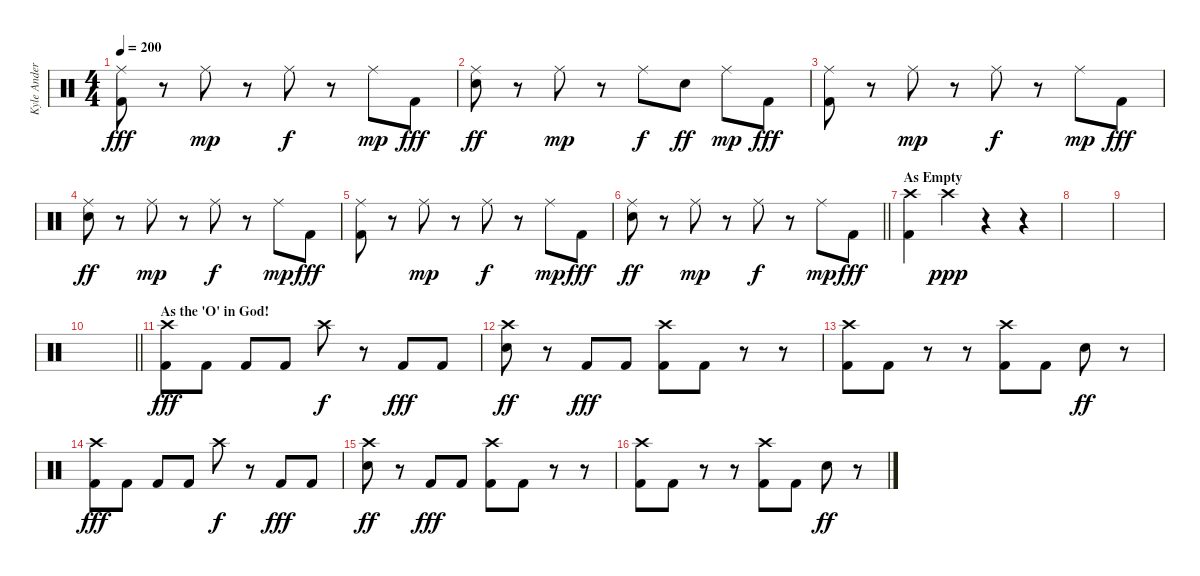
\track ("Kyle Anderson" "Kyle Ander") {instrument percussion}
\staff {score}
\articulation defaults
\ts (4 4)
\tempo 200
\clef neutral
\ks c
("Ride (middle)" "Kick (hit) 2").8{dy fff} r.8 "Ride (middle)".8{dy mp} r.8 "Ride (middle)".8{dy f} r.8 "Ride (middle)".8{dy mp} "Kick (hit) 2".8{dy fff} |
("Ride (middle)" "Electric Snare (hit)").8{dy ff} r.8 "Ride (middle)".8{dy mp} r.8 "Ride (middle)".8{dy f} "Electric Snare (hit)".8{dy ff} "Ride (middle)".8{dy mp} "Kick (hit) 2".8{dy fff} |
("Ride (middle)" "Kick (hit) 2").8 r.8 "Ride (middle)".8{dy mp} r.8 "Ride (middle)".8{dy f} r.8 "Ride (middle)".8{dy mp} "Kick (hit) 2".8{dy fff} |
("Ride (middle)" "Electric Snare (hit)").8{dy ff} r.8 "Ride (middle)".8{dy mp} r.8 "Ride (middle)".8{dy f} r.8 "Ride (middle)".8{dy mp} "Kick (hit) 2".8{dy fff} |
("Ride (middle)" "Kick (hit) 2").8 r.8 "Ride (middle)".8{dy mp} r.8 "Ride (middle)".8{dy f} r.8 "Ride (middle)".8{dy mp} "Kick (hit) 2".8{dy fff} |
\barLineRight lightlight
("Ride (middle)" "Electric Snare (hit)").8{dy ff} r.8 "Ride (middle)".8{dy mp} r.8 "Ride (middle)".8{dy f} r.8 "Ride (middle)".8{dy mp} "Kick (hit) 2".8{dy fff} |
\section ("" "As Empty")
("Crash high (hit)" "Kick (hit) 2").4 "Crash high (hit)".4{dy ppp} r.4 r.4 |
|
|
\barLineRight lightlight
|
\section ("" "As the 'O' in God!")
("Crash high (hit)" "Kick (hit) 2").8{dy fff} "Kick (hit) 2".8 "Kick (hit) 2".8 "Kick (hit) 2".8 "Crash high (hit)".8{dy f} r.8 "Kick (hit) 2".8{dy fff} "Kick (hit) 2".8 |
("Crash high (hit)" "Electric Snare (hit)").8{dy ff} r.8 "Kick (hit) 2".8{dy fff} "Kick (hit) 2".8 ("Crash high (hit)" "Kick (hit) 2").8 "Kick (hit) 2".8 r.8 r.8 |
("Crash high (hit)" "Kick (hit) 2").8 "Kick (hit) 2".8 r.8 r.8 ("Crash high (hit)" "Kick (hit) 2").8 "Kick (hit) 2".8 "Electric Snare (hit)".8{dy ff} r.8 |
("Crash high (hit)" "Kick (hit) 2").8{dy fff} "Kick (hit) 2".8 "Kick (hit) 2".8 "Kick (hit) 2".8 "Crash high (hit)".8{dy f} r.8 "Kick (hit) 2".8{dy fff} "Kick (hit) 2".8 |
("Crash high (hit)" "Electric Snare (hit)").8{dy ff} r.8 "Kick (hit) 2".8{dy fff} "Kick (hit) 2".8 ("Crash high (hit)" "Kick (hit) 2").8 "Kick (hit) 2".8 r.8 r.8 |
("Crash high (hit)" "Kick (hit) 2").8 "Kick (hit) 2".8 r.8 r.8 ("Crash high (hit)" "Kick (hit) 2").8 "Kick (hit) 2".8 "Electric Snare (hit)".8{dy ff} r.8
